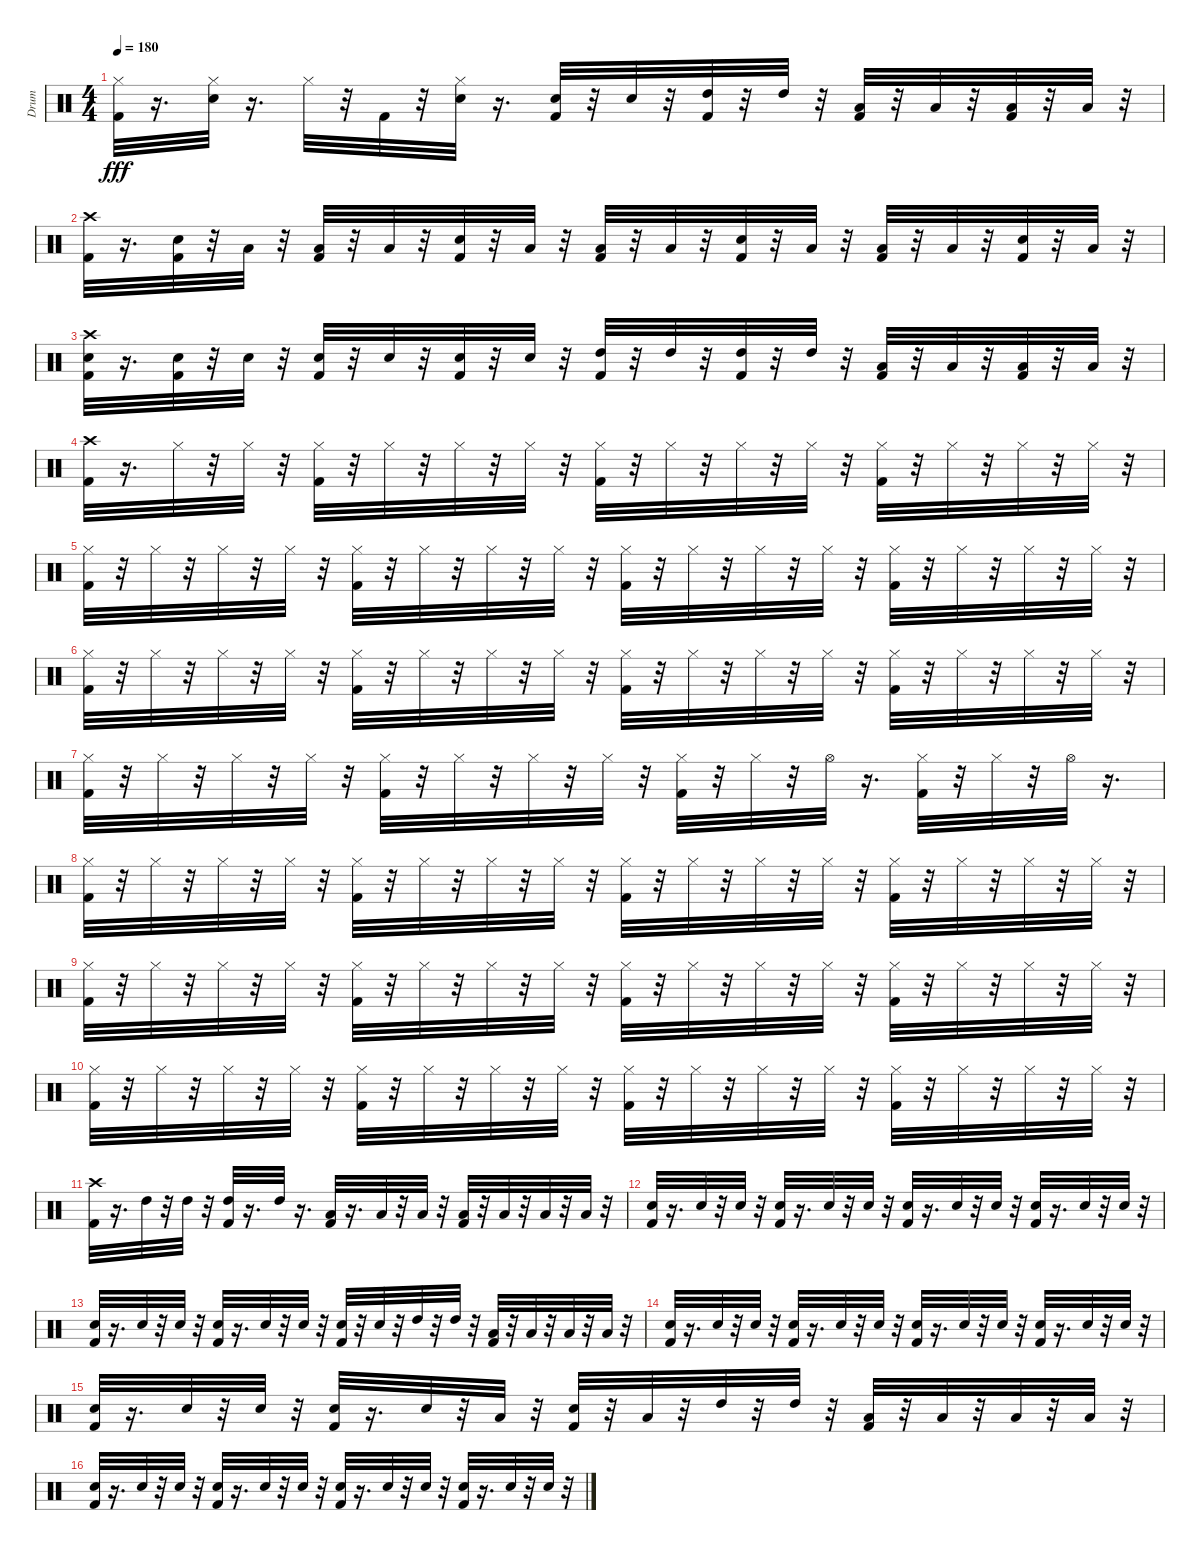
\track ("Drum" "Drum") {instrument percussion}
\staff {score}
\articulation defaults
\ts (4 4)
\tempo 180
\clef neutral
\ks c
("Kick (hit) 2" "Hi-Hat (closed)").32{dy fff} r.16{d} ("Snare (hit) 2" "Hi-Hat (closed)").32 r.16{d} "Hi-Hat (closed)".32 r.32 "Kick (hit) 2".32 r.32 ("Snare (hit) 2" "Hi-Hat (closed)").32 r.16{d} ("Kick (hit) 2" "Snare (hit) 2").32 r.32 "Snare (hit) 2".32 r.32 ("Kick (hit) 2" "High Tom (hit)").32 r.32 "High Tom (hit)".32 r.32 ("Kick (hit) 2" "Low Tom (hit)").32 r.32 "Low Tom (hit)".32 r.32 ("Kick (hit) 2" "Low Floor Tom (hit)").32 r.32 "Low Floor Tom (hit)".32 r.32 |
("Kick (hit) 2" "Crash high (hit)").32 r.16{d} ("Kick (hit) 2" "Snare (hit) 2").32 r.32 "Low Floor Tom (hit)".32 r.32 ("Kick (hit) 2" "Low Floor Tom (hit)").32 r.32 "Low Floor Tom (hit)".32 r.32 ("Kick (hit) 2" "Snare (hit) 2").32 r.32 "Low Floor Tom (hit)".32 r.32 ("Kick (hit) 2" "Low Floor Tom (hit)").32 r.32 "Low Floor Tom (hit)".32 r.32 ("Kick (hit) 2" "Snare (hit) 2").32 r.32 "Low Floor Tom (hit)".32 r.32 ("Kick (hit) 2" "Low Floor Tom (hit)").32 r.32 "Low Floor Tom (hit)".32 r.32 ("Kick (hit) 2" "Snare (hit) 2").32 r.32 "Low Floor Tom (hit)".32 r.32 |
("Snare (hit) 2" "Crash high (hit)" "Kick (hit) 2").32 r.16{d} ("Snare (hit) 2" "Kick (hit) 2").32 r.32 "Snare (hit) 2".32 r.32 ("Snare (hit) 2" "Kick (hit) 2").32 r.32 "Snare (hit) 2".32 r.32 ("Snare (hit) 2" "Kick (hit) 2").32 r.32 "Snare (hit) 2".32 r.32 ("High Tom (hit)" "Kick (hit) 2").32 r.32 "High Tom (hit)".32 r.32 ("High Tom (hit)" "Kick (hit) 2").32 r.32 "High Tom (hit)".32 r.32 ("Low Tom (hit)" "Kick (hit) 2").32 r.32 "Low Tom (hit)".32 r.32 ("Low Tom (hit)" "Kick (hit) 2").32 r.32 "Low Tom (hit)".32 r.32 |
("Kick (hit) 2" "Crash high (hit)").32 r.16{d} "Hi-Hat (closed)".32 r.32 "Hi-Hat (closed)".32 r.32 ("Kick (hit) 2" "Hi-Hat (closed)").32 r.32 "Hi-Hat (closed)".32 r.32 "Hi-Hat (closed)".32 r.32 "Hi-Hat (closed)".32 r.32 ("Kick (hit) 2" "Hi-Hat (closed)").32 r.32 "Hi-Hat (closed)".32 r.32 "Hi-Hat (closed)".32 r.32 "Hi-Hat (closed)".32 r.32 ("Kick (hit) 2" "Hi-Hat (closed)").32 r.32 "Hi-Hat (closed)".32 r.32 "Hi-Hat (closed)".32 r.32 "Hi-Hat (closed)".32 r.32 |
("Hi-Hat (closed)" "Kick (hit) 2").32 r.32 "Hi-Hat (closed)".32 r.32 "Hi-Hat (closed)".32 r.32 "Hi-Hat (closed)".32 r.32 ("Hi-Hat (closed)" "Kick (hit) 2").32 r.32 "Hi-Hat (closed)".32 r.32 "Hi-Hat (closed)".32 r.32 "Hi-Hat (closed)".32 r.32 ("Hi-Hat (closed)" "Kick (hit) 2").32 r.32 "Hi-Hat (closed)".32 r.32 "Hi-Hat (closed)".32 r.32 "Hi-Hat (closed)".32 r.32 ("Hi-Hat (closed)" "Kick (hit) 2").32 r.32 "Hi-Hat (closed)".32 r.32 "Hi-Hat (closed)".32 r.32 "Hi-Hat (closed)".32 r.32 |
("Hi-Hat (closed)" "Kick (hit) 2").32 r.32 "Hi-Hat (closed)".32 r.32 "Hi-Hat (closed)".32 r.32 "Hi-Hat (closed)".32 r.32 ("Hi-Hat (closed)" "Kick (hit) 2").32 r.32 "Hi-Hat (closed)".32 r.32 "Hi-Hat (closed)".32 r.32 "Hi-Hat (closed)".32 r.32 ("Hi-Hat (closed)" "Kick (hit) 2").32 r.32 "Hi-Hat (closed)".32 r.32 "Hi-Hat (closed)".32 r.32 "Hi-Hat (closed)".32 r.32 ("Hi-Hat (closed)" "Kick (hit) 2").32 r.32 "Hi-Hat (closed)".32 r.32 "Hi-Hat (closed)".32 r.32 "Hi-Hat (closed)".32 r.32 |
("Kick (hit) 2" "Hi-Hat (closed)").32 r.32 "Hi-Hat (closed)".32 r.32 "Hi-Hat (closed)".32 r.32 "Hi-Hat (closed)".32 r.32 ("Kick (hit) 2" "Hi-Hat (closed)").32 r.32 "Hi-Hat (closed)".32 r.32 "Hi-Hat (closed)".32 r.32 "Hi-Hat (closed)".32 r.32 ("Kick (hit) 2" "Hi-Hat (closed)").32 r.32 "Hi-Hat (closed)".32 r.32 "Hi-Hat (open)".32 r.16{d} ("Kick (hit) 2" "Hi-Hat (closed)").32 r.32 "Hi-Hat (closed)".32 r.32 "Hi-Hat (open)".32 r.16{d} |
("Hi-Hat (closed)" "Kick (hit) 2").32 r.32 "Hi-Hat (closed)".32 r.32 "Hi-Hat (closed)".32 r.32 "Hi-Hat (closed)".32 r.32 ("Hi-Hat (closed)" "Kick (hit) 2").32 r.32 "Hi-Hat (closed)".32 r.32 "Hi-Hat (closed)".32 r.32 "Hi-Hat (closed)".32 r.32 ("Hi-Hat (closed)" "Kick (hit) 2").32 r.32 "Hi-Hat (closed)".32 r.32 "Hi-Hat (closed)".32 r.32 "Hi-Hat (closed)".32 r.32 ("Hi-Hat (closed)" "Kick (hit) 2").32 r.32 "Hi-Hat (closed)".32 r.32 "Hi-Hat (closed)".32 r.32 "Hi-Hat (closed)".32 r.32 |
("Hi-Hat (closed)" "Kick (hit) 2").32 r.32 "Hi-Hat (closed)".32 r.32 "Hi-Hat (closed)".32 r.32 "Hi-Hat (closed)".32 r.32 ("Hi-Hat (closed)" "Kick (hit) 2").32 r.32 "Hi-Hat (closed)".32 r.32 "Hi-Hat (closed)".32 r.32 "Hi-Hat (closed)".32 r.32 ("Hi-Hat (closed)" "Kick (hit) 2").32 r.32 "Hi-Hat (closed)".32 r.32 "Hi-Hat (closed)".32 r.32 "Hi-Hat (closed)".32 r.32 ("Hi-Hat (closed)" "Kick (hit) 2").32 r.32 "Hi-Hat (closed)".32 r.32 "Hi-Hat (closed)".32 r.32 "Hi-Hat (closed)".32 r.32 |
("Hi-Hat (closed)" "Kick (hit) 2").32 r.32 "Hi-Hat (closed)".32 r.32 "Hi-Hat (closed)".32 r.32 "Hi-Hat (closed)".32 r.32 ("Hi-Hat (closed)" "Kick (hit) 2").32 r.32 "Hi-Hat (closed)".32 r.32 "Hi-Hat (closed)".32 r.32 "Hi-Hat (closed)".32 r.32 ("Hi-Hat (closed)" "Kick (hit) 2").32 r.32 "Hi-Hat (closed)".32 r.32 "Hi-Hat (closed)".32 r.32 "Hi-Hat (closed)".32 r.32 ("Hi-Hat (closed)" "Kick (hit) 2").32 r.32 "Hi-Hat (closed)".32 r.32 "Hi-Hat (closed)".32 r.32 "Hi-Hat (closed)".32 r.32 |
("Kick (hit) 2" "Crash high (hit)").32 r.16{d} "High Tom (hit)".32 r.32 "High Tom (hit)".32 r.32 ("Kick (hit) 2" "High Tom (hit)").32 r.16{d} "High Tom (hit)".32 r.16{d} ("Kick (hit) 2" "Low Tom (hit)").32 r.16{d} "Low Tom (hit)".32 r.32 "Low Tom (hit)".32 r.32 ("Kick (hit) 2" "Low Floor Tom (hit)").32 r.32 "Low Floor Tom (hit)".32 r.32 "Low Floor Tom (hit)".32 r.32 "Low Floor Tom (hit)".32 r.32 |
("Kick (hit) 2" "Snare (hit) 2").32{volume 9} r.16{d} "Snare (hit) 2".32 r.32 "Snare (hit) 2".32 r.32 ("Kick (hit) 2" "Snare (hit) 2").32 r.16{d} "Snare (hit) 2".32 r.32 "Snare (hit) 2".32 r.32 ("Kick (hit) 2" "Snare (hit) 2").32 r.16{d} "Snare (hit) 2".32 r.32 "Snare (hit) 2".32 r.32 ("Kick (hit) 2" "Snare (hit) 2").32 r.16{d} "Snare (hit) 2".32 r.32 "Snare (hit) 2".32 r.32 |
("Kick (hit) 2" "Snare (hit) 2").32 r.16{d} "Snare (hit) 2".32 r.32 "Snare (hit) 2".32 r.32 ("Kick (hit) 2" "Snare (hit) 2").32 r.16{d} "Snare (hit) 2".32 r.32 "Snare (hit) 2".32 r.32 ("Kick (hit) 2" "Snare (hit) 2").32 r.32 "Snare (hit) 2".32 r.32 "High Tom (hit)".32 r.32 "High Tom (hit)".32 r.32 ("Kick (hit) 2" "Low Tom (hit)").32 r.32 "Low Tom (hit)".32 r.32 "Low Floor Tom (hit)".32 r.32 "Low Floor Tom (hit)".32 r.32 |
("Kick (hit) 2" "Snare (hit) 2").32 r.16{d} "Snare (hit) 2".32 r.32 "Snare (hit) 2".32 r.32 ("Kick (hit) 2" "Snare (hit) 2").32 r.16{d} "Snare (hit) 2".32 r.32 "Snare (hit) 2".32 r.32 ("Kick (hit) 2" "Snare (hit) 2").32 r.16{d} "Snare (hit) 2".32 r.32 "Snare (hit) 2".32 r.32 ("Kick (hit) 2" "Snare (hit) 2").32 r.16{d} "Snare (hit) 2".32 r.32 "Snare (hit) 2".32 r.32 |
("Kick (hit) 2" "Snare (hit) 2").32 r.16{d} "Snare (hit) 2".32 r.32 "Snare (hit) 2".32 r.32 ("Kick (hit) 2" "Snare (hit) 2").32 r.16{d} "Snare (hit) 2".32 r.32 "Low Floor Tom (hit)".32 r.32 ("Kick (hit) 2" "Snare (hit) 2").32 r.32 "Low Floor Tom (hit)".32 r.32 "High Tom (hit)".32 r.32 "High Tom (hit)".32 r.32 ("Kick (hit) 2" "Low Tom (hit)").32 r.32 "Low Tom (hit)".32 r.32 "Low Floor Tom (hit)".32 r.32 "Low Floor Tom (hit)".32 r.32 |
("Kick (hit) 2" "Snare (hit) 2").32 r.16{d} "Snare (hit) 2".32 r.32 "Snare (hit) 2".32 r.32 ("Kick (hit) 2" "Snare (hit) 2").32 r.16{d} "Snare (hit) 2".32 r.32 "Snare (hit) 2".32 r.32 ("Kick (hit) 2" "Snare (hit) 2").32 r.16{d} "Snare (hit) 2".32 r.32 "Snare (hit) 2".32 r.32 ("Kick (hit) 2" "Snare (hit) 2").32 r.16{d} "Snare (hit) 2".32 r.32 "Snare (hit) 2".32 r.32
